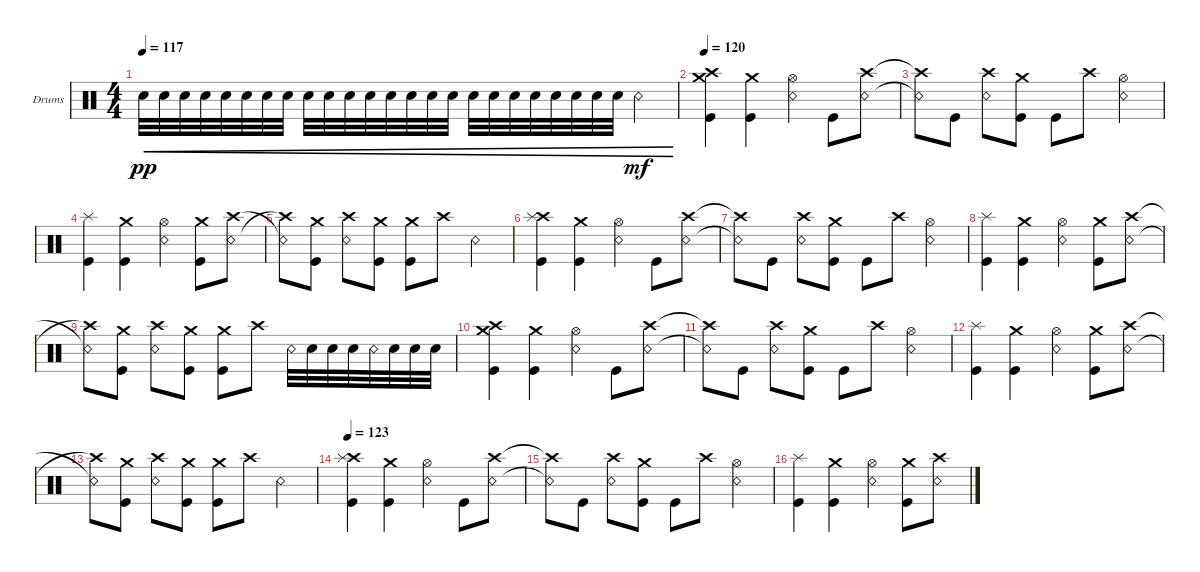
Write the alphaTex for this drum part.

\defaultSystemsLayout 4
\bracketExtendMode groupsimilarinstruments
\firstSystemTrackNameOrientation horizontal
\otherSystemsTrackNameOrientation horizontal
\track ("Drumkit" "Drums") {instrument percussion}
\staff {score}
\articulation defaults
\ts (4 4)
\tempo 117
\clef neutral
\ks c "Snare (hit) 2".32{cre dy pp} "Snare (hit) 2".32{cre} "Snare (hit) 2".32{cre} "Snare (hit) 2".32{cre} "Snare (hit) 2".32{cre} "Snare (hit) 2".32{cre} "Snare (hit) 2".32{cre} "Snare (hit) 2".32{cre} "Snare (hit) 2".32{cre} "Snare (hit) 2".32{cre} "Snare (hit) 2".32{cre} "Snare (hit) 2".32{cre} "Snare (hit) 2".32{cre} "Snare (hit) 2".32{cre} "Snare (hit) 2".32{cre} "Snare (hit) 2".32{cre} "Snare (hit) 2".32{cre} "Snare (hit) 2".32{cre} "Snare (hit) 2".32{cre} "Snare (hit) 2".32{cre} "Snare (hit) 2".32{cre} "Snare (hit) 2".32{cre} "Snare (hit) 2".32{cre} "Snare (hit) 2".32{cre} "Snare (rim shot)".4{cre dy mf}
|
\tempo 120
("Kick (hit)" "Crash medium (hit)" "Crash high (hit)").4 ("Crash medium (hit)" "Kick (hit)").4 ("Snare (rim shot)" "Hi-Hat (open)").4 "Kick (hit)".8 ("Crash high (hit)" "Snare (rim shot)").8 |
("Crash high (hit)"{t} "Snare (rim shot)"{t}).8 "Kick (hit)".8 ("Crash high (hit)" "Snare (rim shot)").8 ("Kick (hit)" "Crash medium (hit)").8 "Kick (hit)".8 "Crash high (hit)".8 ("Snare (rim shot)" "Hi-Hat (open)").4 |
("Kick (hit)" "Splash (hit)").4 ("Crash medium (hit)" "Kick (hit)").4 ("Snare (rim shot)" "Hi-Hat (open)").4 ("Kick (hit)" "Crash medium (hit)").8 ("Snare (rim shot)" "Crash high (hit)").8 |
("Crash high (hit)"{t} "Snare (rim shot)"{t}).8 ("Kick (hit)" "Crash medium (hit)").8 ("Snare (rim shot)" "Crash high (hit)").8 ("Kick (hit)" "Crash medium (hit)").8 ("Kick (hit)" "Crash medium (hit)").8 "Crash high (hit)".8 "Snare (rim shot)".4 |
("Kick (hit)" "Crash high (hit)" "Splash (hit)").4 ("Crash medium (hit)" "Kick (hit)").4 ("Snare (rim shot)" "Hi-Hat (open)").4 "Kick (hit)".8 ("Crash high (hit)" "Snare (rim shot)").8 |
("Crash high (hit)"{t} "Snare (rim shot)"{t}).8 "Kick (hit)".8 ("Crash high (hit)" "Snare (rim shot)").8 ("Kick (hit)" "Crash medium (hit)").8 "Kick (hit)".8 "Crash high (hit)".8 ("Snare (rim shot)" "Hi-Hat (open)").4 |
("Kick (hit)" "Splash (hit)").4 ("Crash medium (hit)" "Kick (hit)").4 ("Snare (rim shot)" "Hi-Hat (open)").4 ("Kick (hit)" "Crash medium (hit)").8 ("Snare (rim shot)" "Crash high (hit)").8 |
("Crash high (hit)"{t} "Snare (rim shot)"{t}).8 ("Kick (hit)" "Crash medium (hit)").8 ("Snare (rim shot)" "Crash high (hit)").8 ("Kick (hit)" "Crash medium (hit)").8 ("Kick (hit)" "Crash medium (hit)").8 "Crash high (hit)".8 "Snare (rim shot)".32 "Snare (hit) 2".32 "Snare (hit) 2".32 "Snare (hit) 2".32 "Snare (rim shot)".32 "Snare (hit) 2".32 "Snare (hit) 2".32 "Snare (hit) 2".32 |
("Kick (hit)" "Crash medium (hit)" "Crash high (hit)").4 ("Crash medium (hit)" "Kick (hit)").4 ("Snare (rim shot)" "Hi-Hat (open)").4 "Kick (hit)".8 ("Crash high (hit)" "Snare (rim shot)").8 |
("Crash high (hit)"{t} "Snare (rim shot)"{t}).8 "Kick (hit)".8 ("Crash high (hit)" "Snare (rim shot)").8 ("Kick (hit)" "Crash medium (hit)").8 "Kick (hit)".8 "Crash high (hit)".8 ("Snare (rim shot)" "Hi-Hat (open)").4 |
("Kick (hit)" "Splash (hit)").4 ("Crash medium (hit)" "Kick (hit)").4 ("Snare (rim shot)" "Hi-Hat (open)").4 ("Kick (hit)" "Crash medium (hit)").8 ("Snare (rim shot)" "Crash high (hit)").8 |
("Crash high (hit)"{t} "Snare (rim shot)"{t}).8 ("Kick (hit)" "Crash medium (hit)").8 ("Snare (rim shot)" "Crash high (hit)").8 ("Kick (hit)" "Crash medium (hit)").8 ("Kick (hit)" "Crash medium (hit)").8 "Crash high (hit)".8 "Snare (rim shot)".4 |
\tempo 123
("Kick (hit)" "Crash high (hit)" "Splash (hit)").4 ("Crash medium (hit)" "Kick (hit)").4 ("Snare (rim shot)" "Hi-Hat (open)").4 "Kick (hit)".8 ("Crash high (hit)" "Snare (rim shot)").8 |
("Crash high (hit)"{t} "Snare (rim shot)"{t}).8 "Kick (hit)".8 ("Crash high (hit)" "Snare (rim shot)").8 ("Kick (hit)" "Crash medium (hit)").8 "Kick (hit)".8 "Crash high (hit)".8 ("Snare (rim shot)" "Hi-Hat (open)").4 |
("Kick (hit)" "Splash (hit)").4 ("Crash medium (hit)" "Kick (hit)").4 ("Snare (rim shot)" "Hi-Hat (open)").4 ("Kick (hit)" "Crash medium (hit)").8 ("Snare (rim shot)" "Crash high (hit)").8
